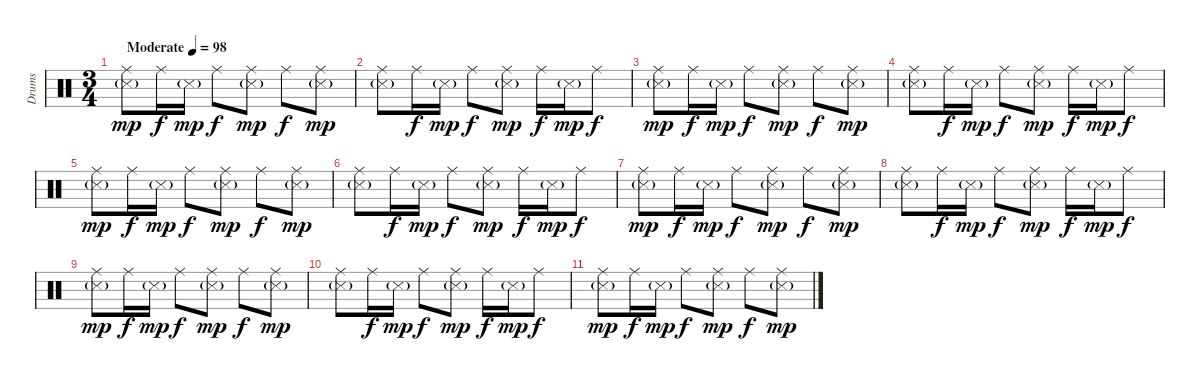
\track ("Drums" "Drums") {instrument percussion}
\staff {score}
\articulation defaults
\ts (3 4)
\tempo (98 "Moderate")
\clef neutral
\ks c
("Ride (middle)" "Snare (side stick) 3"{g}).8{dy mp} "Ride (middle)".16{dy f} "Snare (side stick) 3"{g}.16{dy mp} "Ride (middle)".8{dy f} ("Ride (middle)" "Snare (side stick) 3"{g}).8{dy mp} "Ride (middle)".8{dy f} ("Ride (middle)" "Snare (side stick) 3"{g}).8{dy mp} |
("Ride (middle)" "Snare (side stick) 3"{g}).8 "Ride (middle)".16{dy f} "Snare (side stick) 3"{g}.16{dy mp} "Ride (middle)".8{dy f} ("Ride (middle)" "Snare (side stick) 3"{g}).8{dy mp} "Ride (middle)".16{dy f} "Snare (side stick) 3"{g}.16{dy mp} "Ride (middle)".8{dy f} |
("Ride (middle)" "Snare (side stick) 3"{g}).8{dy mp} "Ride (middle)".16{dy f} "Snare (side stick) 3"{g}.16{dy mp} "Ride (middle)".8{dy f} ("Ride (middle)" "Snare (side stick) 3"{g}).8{dy mp} "Ride (middle)".8{dy f} ("Ride (middle)" "Snare (side stick) 3"{g}).8{dy mp} |
("Ride (middle)" "Snare (side stick) 3"{g}).8 "Ride (middle)".16{dy f} "Snare (side stick) 3"{g}.16{dy mp} "Ride (middle)".8{dy f} ("Ride (middle)" "Snare (side stick) 3"{g}).8{dy mp} "Ride (middle)".16{dy f} "Snare (side stick) 3"{g}.16{dy mp} "Ride (middle)".8{dy f} |
("Ride (middle)" "Snare (side stick) 3"{g}).8{dy mp} "Ride (middle)".16{dy f} "Snare (side stick) 3"{g}.16{dy mp} "Ride (middle)".8{dy f} ("Ride (middle)" "Snare (side stick) 3"{g}).8{dy mp} "Ride (middle)".8{dy f} ("Ride (middle)" "Snare (side stick) 3"{g}).8{dy mp} |
("Ride (middle)" "Snare (side stick) 3"{g}).8 "Ride (middle)".16{dy f} "Snare (side stick) 3"{g}.16{dy mp} "Ride (middle)".8{dy f} ("Ride (middle)" "Snare (side stick) 3"{g}).8{dy mp} "Ride (middle)".16{dy f} "Snare (side stick) 3"{g}.16{dy mp} "Ride (middle)".8{dy f} |
("Ride (middle)" "Snare (side stick) 3"{g}).8{dy mp} "Ride (middle)".16{dy f} "Snare (side stick) 3"{g}.16{dy mp} "Ride (middle)".8{dy f} ("Ride (middle)" "Snare (side stick) 3"{g}).8{dy mp} "Ride (middle)".8{dy f} ("Ride (middle)" "Snare (side stick) 3"{g}).8{dy mp} |
("Ride (middle)" "Snare (side stick) 3"{g}).8 "Ride (middle)".16{dy f} "Snare (side stick) 3"{g}.16{dy mp} "Ride (middle)".8{dy f} ("Ride (middle)" "Snare (side stick) 3"{g}).8{dy mp} "Ride (middle)".16{dy f} "Snare (side stick) 3"{g}.16{dy mp} "Ride (middle)".8{dy f} |
("Ride (middle)" "Snare (side stick) 3"{g}).8{dy mp} "Ride (middle)".16{dy f} "Snare (side stick) 3"{g}.16{dy mp} "Ride (middle)".8{dy f} ("Ride (middle)" "Snare (side stick) 3"{g}).8{dy mp} "Ride (middle)".8{dy f} ("Ride (middle)" "Snare (side stick) 3"{g}).8{dy mp} |
("Ride (middle)" "Snare (side stick) 3"{g}).8 "Ride (middle)".16{dy f} "Snare (side stick) 3"{g}.16{dy mp} "Ride (middle)".8{dy f} ("Ride (middle)" "Snare (side stick) 3"{g}).8{dy mp} "Ride (middle)".16{dy f} "Snare (side stick) 3"{g}.16{dy mp} "Ride (middle)".8{dy f} |
("Ride (middle)" "Snare (side stick) 3"{g}).8{dy mp} "Ride (middle)".16{dy f} "Snare (side stick) 3"{g}.16{dy mp} "Ride (middle)".8{dy f} ("Ride (middle)" "Snare (side stick) 3"{g}).8{dy mp} "Ride (middle)".8{dy f} ("Ride (middle)" "Snare (side stick) 3"{g}).8{dy mp}
